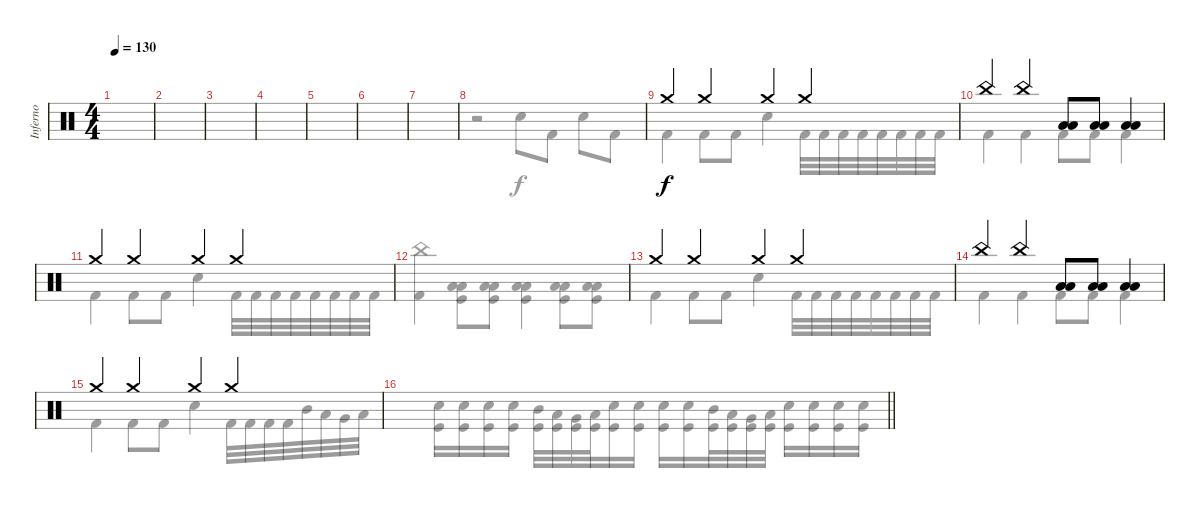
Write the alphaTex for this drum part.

\track ("Inferno" "Inferno") {instrument percussion}
\staff {score}
\articulation defaults
\voice
\ts (4 4)
\tempo 130
\clef neutral
\ks c
|
|
|
|
|
|
|
|
"Crash medium (hit)".4 "Crash medium (hit)".4 "Crash medium (hit)".4 "Crash medium (hit)".4 |
"China (hit)".4 "China (hit)".4 ("Low Floor Tom (hit)" "Low Tom (hit)").8 ("Low Floor Tom (hit)" "Low Tom (hit)").8 ("Low Floor Tom (hit)" "Low Tom (hit)").4 |
"Crash medium (hit)".4 "Crash medium (hit)".4 "Crash medium (hit)".4 "Crash medium (hit)".4 |
|
"Crash medium (hit)".4 "Crash medium (hit)".4 "Crash medium (hit)".4 "Crash medium (hit)".4 |
"China (hit)".4 "China (hit)".4 ("Low Floor Tom (hit)" "Low Tom (hit)").8 ("Low Floor Tom (hit)" "Low Tom (hit)").8 ("Low Floor Tom (hit)" "Low Tom (hit)").4 |
"Crash medium (hit)".4 "Crash medium (hit)".4 "Crash medium (hit)".4 "Crash medium (hit)".4 |
\barLineRight lightlight
\voice
\clef neutral
\ottava regular
\simile none
\ks c
|
|
|
|
|
|
|
r.2 "Snare (hit) 2".8 "Kick (hit) 2".8 "Snare (hit) 2".8 "Kick (hit) 2".8 |
"Kick (hit) 2".4 "Kick (hit) 2".8 "Kick (hit) 2".8 "Snare (hit) 2".4 "Kick (hit) 2".32 "Kick (hit) 2".32 "Kick (hit) 2".32 "Kick (hit) 2".32 "Kick (hit) 2".32 "Kick (hit) 2".32 "Kick (hit) 2".32 "Kick (hit) 2".32 |
"Kick (hit) 2".4 "Kick (hit) 2".4 "Kick (hit) 2".8 "Kick (hit) 2".8 "Kick (hit) 2".4 |
"Kick (hit) 2".4 "Kick (hit) 2".8 "Kick (hit) 2".8 "Snare (hit) 2".4 "Kick (hit) 2".32 "Kick (hit) 2".32 "Kick (hit) 2".32 "Kick (hit) 2".32 "Kick (hit) 2".32 "Kick (hit) 2".32 "Kick (hit) 2".32 "Kick (hit) 2".32 |
("Kick (hit) 2" "China (hit)").4 ("Kick (hit)" "Low Floor Tom (hit)" "Low Tom (hit)").8 ("Kick (hit)" "Low Floor Tom (hit)" "Low Tom (hit)").8 ("Kick (hit)" "Low Floor Tom (hit)" "Low Tom (hit)").4 ("Kick (hit)" "Low Floor Tom (hit)" "Low Tom (hit)").8 ("Kick (hit)" "Low Floor Tom (hit)" "Low Tom (hit)").8 |
"Kick (hit) 2".4 "Kick (hit) 2".8 "Kick (hit) 2".8 "Snare (hit) 2".4 "Kick (hit) 2".32 "Kick (hit) 2".32 "Kick (hit) 2".32 "Kick (hit) 2".32 "Kick (hit) 2".32 "Kick (hit) 2".32 "Kick (hit) 2".32 "Kick (hit) 2".32 |
"Kick (hit) 2".4 "Kick (hit) 2".4 "Kick (hit) 2".8 "Kick (hit) 2".8 "Kick (hit) 2".4 |
"Kick (hit) 2".4 "Kick (hit) 2".8 "Kick (hit) 2".8 "Snare (hit) 2".4 "Kick (hit) 2".32 "Kick (hit) 2".32 "Kick (hit) 2".32 "Kick (hit) 2".32 "Mid Tom (hit)".32 "Low Tom (hit)".32 "Very Low Tom (hit)".32 "Low Floor Tom (hit)".32 |
\barLineRight lightlight
("Kick (hit)" "Snare (hit) 2").16 ("Kick (hit)" "Snare (hit) 2").16 ("Kick (hit)" "Snare (hit) 2").16 ("Kick (hit)" "Snare (hit) 2").16 ("Kick (hit)" "Mid Tom (hit)").32 ("Kick (hit)" "Low Tom (hit)").32 ("Kick (hit)" "Very Low Tom (hit)").32 ("Kick (hit)" "Low Floor Tom (hit)").32 ("Kick (hit)" "Snare (hit) 2").16 ("Kick (hit)" "Snare (hit) 2").16 ("Kick (hit)" "Snare (hit) 2").16 ("Kick (hit)" "Snare (hit) 2").16 ("Kick (hit)" "Mid Tom (hit)").32 ("Kick (hit)" "Low Tom (hit)").32 ("Kick (hit)" "Very Low Tom (hit)").32 ("Kick (hit)" "Low Floor Tom (hit)").32 ("Kick (hit)" "Snare (hit) 2").16 ("Kick (hit)" "Snare (hit) 2").16 ("Kick (hit)" "Snare (hit) 2").16 ("Kick (hit)" "Snare (hit) 2").16
